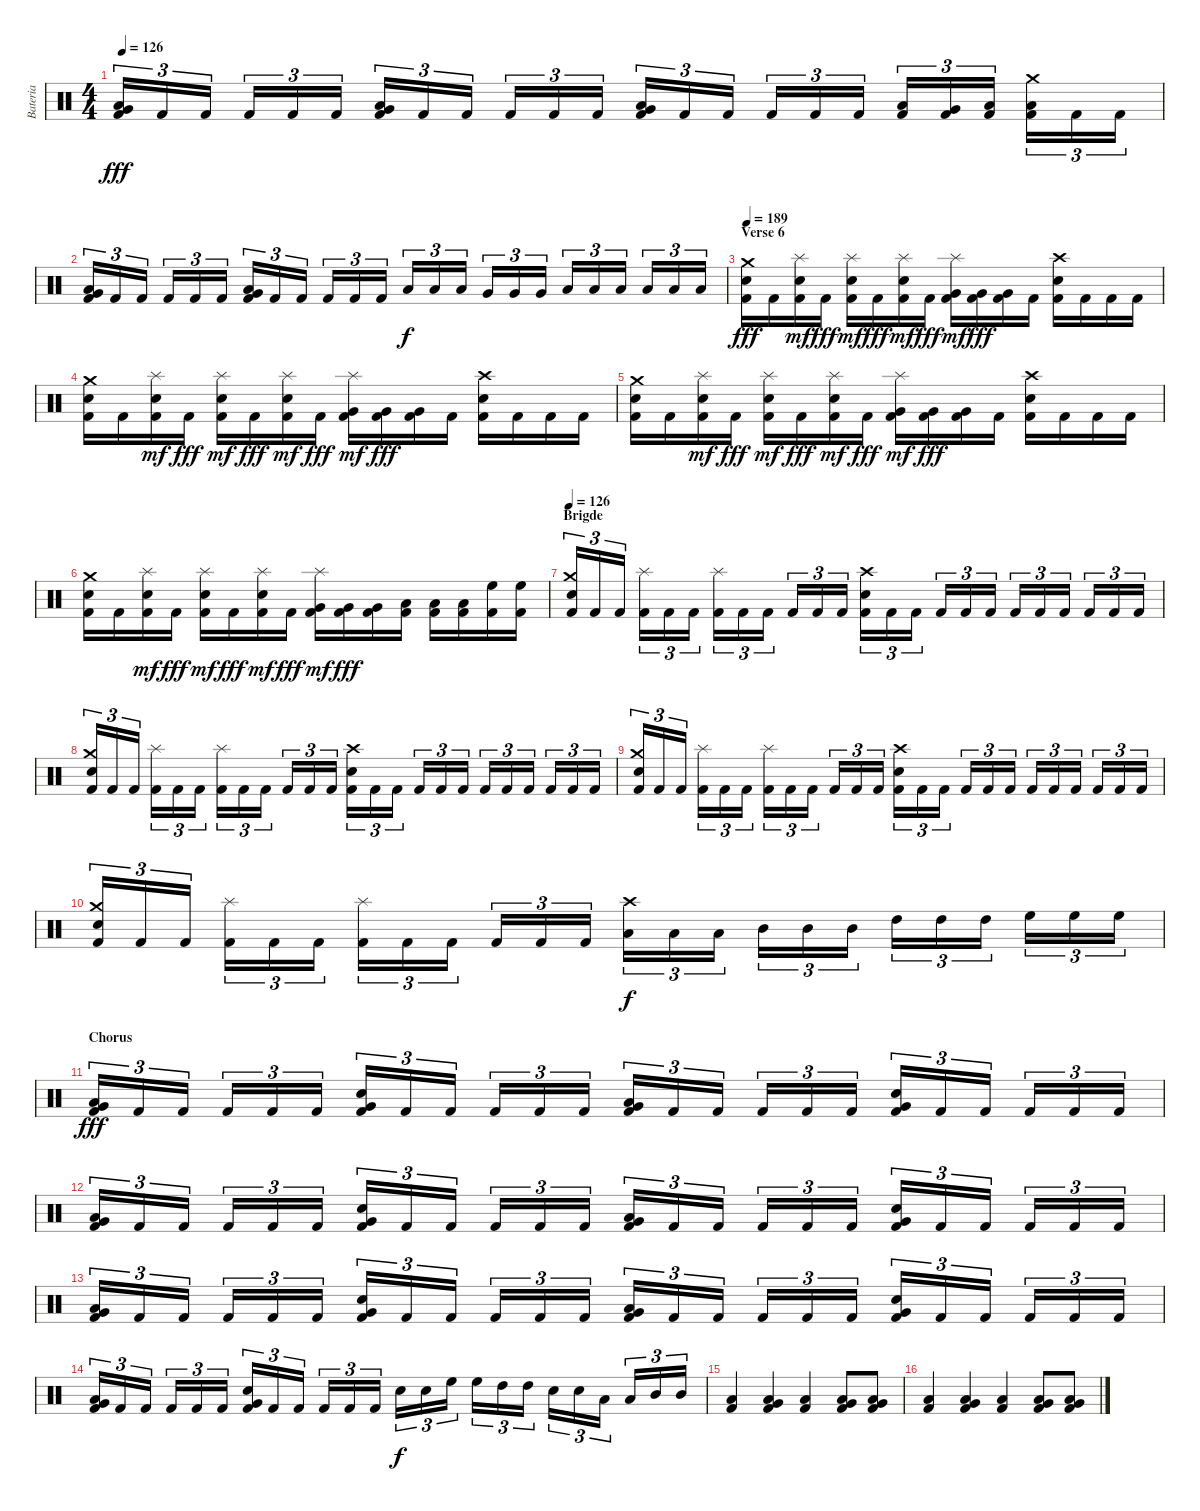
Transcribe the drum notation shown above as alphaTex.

\track ("Bateria" "Bateria") {instrument percussion}
\staff {score}
\articulation defaults
\ts (4 4)
\tempo 126
\clef neutral
\ks c
("Kick (hit) 2" "Low Floor Tom (hit)" "Very Low Tom (hit)").16{tu (3 2) dy fff} "Kick (hit) 2".16{tu (3 2)} "Kick (hit) 2".16{tu (3 2)} "Kick (hit) 2".16{tu (3 2)} "Kick (hit) 2".16{tu (3 2)} "Kick (hit) 2".16{tu (3 2)} ("Kick (hit) 2" "Low Floor Tom (hit)" "Very Low Tom (hit)").16{tu (3 2)} "Kick (hit) 2".16{tu (3 2)} "Kick (hit) 2".16{tu (3 2)} "Kick (hit) 2".16{tu (3 2)} "Kick (hit) 2".16{tu (3 2)} "Kick (hit) 2".16{tu (3 2)} ("Kick (hit) 2" "Low Floor Tom (hit)" "Very Low Tom (hit)").16{tu (3 2)} "Kick (hit) 2".16{tu (3 2)} "Kick (hit) 2".16{tu (3 2)} "Kick (hit) 2".16{tu (3 2)} "Kick (hit) 2".16{tu (3 2)} "Kick (hit) 2".16{tu (3 2)} ("Kick (hit) 2" "Low Floor Tom (hit)").16{tu (3 2)} ("Kick (hit) 2" "Very Low Tom (hit)").16{tu (3 2)} ("Kick (hit) 2" "Low Floor Tom (hit)").16{tu (3 2)} ("Kick (hit) 2" "Low Floor Tom (hit)" "Crash medium (hit)").16{tu (3 2)} "Kick (hit) 2".16{tu (3 2)} "Kick (hit) 2".16{tu (3 2)} |
("Kick (hit) 2" "Low Floor Tom (hit)" "Very Low Tom (hit)").16{tu (3 2)} "Kick (hit) 2".16{tu (3 2)} "Kick (hit) 2".16{tu (3 2)} "Kick (hit) 2".16{tu (3 2)} "Kick (hit) 2".16{tu (3 2)} "Kick (hit) 2".16{tu (3 2)} ("Kick (hit) 2" "Low Floor Tom (hit)" "Very Low Tom (hit)").16{tu (3 2)} "Kick (hit) 2".16{tu (3 2)} "Kick (hit) 2".16{tu (3 2)} "Kick (hit) 2".16{tu (3 2)} "Kick (hit) 2".16{tu (3 2)} "Kick (hit) 2".16{tu (3 2)} "Low Tom (hit)".16{tu (3 2) dy f} "Low Tom (hit)".16{tu (3 2)} "Low Tom (hit)".16{tu (3 2)} "Very Low Tom (hit)".16{tu (3 2)} "Very Low Tom (hit)".16{tu (3 2)} "Very Low Tom (hit)".16{tu (3 2)} "Low Tom (hit)".16{tu (3 2)} "Low Tom (hit)".16{tu (3 2)} "Low Tom (hit)".16{tu (3 2)} "Low Floor Tom (hit)".16{tu (3 2)} "Low Floor Tom (hit)".16{tu (3 2)} "Low Floor Tom (hit)".16{tu (3 2)} |
\section ("" "Verse 6")
\tempo 189
("Kick (hit) 2" "Electric Snare (hit)" "Crash medium (hit)").16{dy fff} "Kick (hit) 2".16 ("Kick (hit) 2" "Electric Snare (hit)" "Splash (hit)").16{dy mf} "Kick (hit) 2".16{dy fff} ("Kick (hit) 2" "Electric Snare (hit)" "Splash (hit)").16{dy mf} "Kick (hit) 2".16{dy fff} ("Kick (hit) 2" "Electric Snare (hit)" "Splash (hit)").16{dy mf} "Kick (hit) 2".16{dy fff} ("Kick (hit) 2" "Very Low Tom (hit)" "Splash (hit)").16{dy mf} ("Kick (hit) 2" "Very Low Tom (hit)").16{dy fff} ("Kick (hit) 2" "Very Low Tom (hit)").16 "Kick (hit) 2".16 ("Kick (hit) 2" "Electric Snare (hit)" "Crash high (hit)").16 "Kick (hit) 2".16 "Kick (hit) 2".16 "Kick (hit) 2".16 |
("Kick (hit) 2" "Electric Snare (hit)" "Crash medium (hit)").16 "Kick (hit) 2".16 ("Kick (hit) 2" "Electric Snare (hit)" "Splash (hit)").16{dy mf} "Kick (hit) 2".16{dy fff} ("Kick (hit) 2" "Electric Snare (hit)" "Splash (hit)").16{dy mf} "Kick (hit) 2".16{dy fff} ("Kick (hit) 2" "Electric Snare (hit)" "Splash (hit)").16{dy mf} "Kick (hit) 2".16{dy fff} ("Kick (hit) 2" "Very Low Tom (hit)" "Splash (hit)").16{dy mf} ("Kick (hit) 2" "Very Low Tom (hit)").16{dy fff} ("Kick (hit) 2" "Very Low Tom (hit)").16 "Kick (hit) 2".16 ("Kick (hit) 2" "Electric Snare (hit)" "Crash high (hit)").16 "Kick (hit) 2".16 "Kick (hit) 2".16 "Kick (hit) 2".16 |
("Kick (hit) 2" "Electric Snare (hit)" "Crash medium (hit)").16 "Kick (hit) 2".16 ("Kick (hit) 2" "Electric Snare (hit)" "Splash (hit)").16{dy mf} "Kick (hit) 2".16{dy fff} ("Kick (hit) 2" "Electric Snare (hit)" "Splash (hit)").16{dy mf} "Kick (hit) 2".16{dy fff} ("Kick (hit) 2" "Electric Snare (hit)" "Splash (hit)").16{dy mf} "Kick (hit) 2".16{dy fff} ("Kick (hit) 2" "Very Low Tom (hit)" "Splash (hit)").16{dy mf} ("Kick (hit) 2" "Very Low Tom (hit)").16{dy fff} ("Kick (hit) 2" "Very Low Tom (hit)").16 "Kick (hit) 2".16 ("Kick (hit) 2" "Electric Snare (hit)" "Crash high (hit)").16 "Kick (hit) 2".16 "Kick (hit) 2".16 "Kick (hit) 2".16 |
("Kick (hit) 2" "Electric Snare (hit)" "Crash medium (hit)").16 "Kick (hit) 2".16 ("Kick (hit) 2" "Electric Snare (hit)" "Splash (hit)").16{dy mf} "Kick (hit) 2".16{dy fff} ("Kick (hit) 2" "Electric Snare (hit)" "Splash (hit)").16{dy mf} "Kick (hit) 2".16{dy fff} ("Kick (hit) 2" "Electric Snare (hit)" "Splash (hit)").16{dy mf} "Kick (hit) 2".16{dy fff} ("Kick (hit) 2" "Very Low Tom (hit)" "Splash (hit)").16{dy mf} ("Kick (hit) 2" "Very Low Tom (hit)").16{dy fff} ("Kick (hit) 2" "Very Low Tom (hit)").16 ("Kick (hit) 2" "Low Floor Tom (hit)").16 ("Kick (hit) 2" "Low Floor Tom (hit)").16 ("Kick (hit) 2" "Low Floor Tom (hit)").16 ("Kick (hit) 2" "High Floor Tom (hit)").16 ("Kick (hit) 2" "High Floor Tom (hit)").16 |
\section ("" "Brigde")
\tempo 126
("Kick (hit) 2" "Electric Snare (hit)" "Crash medium (hit)").16{tu (3 2)} "Kick (hit) 2".16{tu (3 2)} "Kick (hit) 2".16{tu (3 2)} ("Kick (hit) 2" "Splash (hit)").16{tu (3 2)} "Kick (hit) 2".16{tu (3 2)} "Kick (hit) 2".16{tu (3 2)} ("Kick (hit) 2" "Splash (hit)").16{tu (3 2)} "Kick (hit) 2".16{tu (3 2)} "Kick (hit) 2".16{tu (3 2)} "Kick (hit) 2".16{tu (3 2)} "Kick (hit) 2".16{tu (3 2)} "Kick (hit) 2".16{tu (3 2)} ("Kick (hit) 2" "Electric Snare (hit)" "Crash high (hit)").16{tu (3 2)} "Kick (hit) 2".16{tu (3 2)} "Kick (hit) 2".16{tu (3 2)} "Kick (hit) 2".16{tu (3 2)} "Kick (hit) 2".16{tu (3 2)} "Kick (hit) 2".16{tu (3 2)} "Kick (hit) 2".16{tu (3 2)} "Kick (hit) 2".16{tu (3 2)} "Kick (hit) 2".16{tu (3 2)} "Kick (hit) 2".16{tu (3 2)} "Kick (hit) 2".16{tu (3 2)} "Kick (hit) 2".16{tu (3 2)} |
("Kick (hit) 2" "Electric Snare (hit)" "Crash medium (hit)").16{tu (3 2)} "Kick (hit) 2".16{tu (3 2)} "Kick (hit) 2".16{tu (3 2)} ("Kick (hit) 2" "Splash (hit)").16{tu (3 2)} "Kick (hit) 2".16{tu (3 2)} "Kick (hit) 2".16{tu (3 2)} ("Kick (hit) 2" "Splash (hit)").16{tu (3 2)} "Kick (hit) 2".16{tu (3 2)} "Kick (hit) 2".16{tu (3 2)} "Kick (hit) 2".16{tu (3 2)} "Kick (hit) 2".16{tu (3 2)} "Kick (hit) 2".16{tu (3 2)} ("Kick (hit) 2" "Electric Snare (hit)" "Crash high (hit)").16{tu (3 2)} "Kick (hit) 2".16{tu (3 2)} "Kick (hit) 2".16{tu (3 2)} "Kick (hit) 2".16{tu (3 2)} "Kick (hit) 2".16{tu (3 2)} "Kick (hit) 2".16{tu (3 2)} "Kick (hit) 2".16{tu (3 2)} "Kick (hit) 2".16{tu (3 2)} "Kick (hit) 2".16{tu (3 2)} "Kick (hit) 2".16{tu (3 2)} "Kick (hit) 2".16{tu (3 2)} "Kick (hit) 2".16{tu (3 2)} |
("Kick (hit) 2" "Electric Snare (hit)" "Crash medium (hit)").16{tu (3 2)} "Kick (hit) 2".16{tu (3 2)} "Kick (hit) 2".16{tu (3 2)} ("Kick (hit) 2" "Splash (hit)").16{tu (3 2)} "Kick (hit) 2".16{tu (3 2)} "Kick (hit) 2".16{tu (3 2)} ("Kick (hit) 2" "Splash (hit)").16{tu (3 2)} "Kick (hit) 2".16{tu (3 2)} "Kick (hit) 2".16{tu (3 2)} "Kick (hit) 2".16{tu (3 2)} "Kick (hit) 2".16{tu (3 2)} "Kick (hit) 2".16{tu (3 2)} ("Kick (hit) 2" "Electric Snare (hit)" "Crash high (hit)").16{tu (3 2)} "Kick (hit) 2".16{tu (3 2)} "Kick (hit) 2".16{tu (3 2)} "Kick (hit) 2".16{tu (3 2)} "Kick (hit) 2".16{tu (3 2)} "Kick (hit) 2".16{tu (3 2)} "Kick (hit) 2".16{tu (3 2)} "Kick (hit) 2".16{tu (3 2)} "Kick (hit) 2".16{tu (3 2)} "Kick (hit) 2".16{tu (3 2)} "Kick (hit) 2".16{tu (3 2)} "Kick (hit) 2".16{tu (3 2)} |
("Kick (hit) 2" "Electric Snare (hit)" "Crash medium (hit)").16{tu (3 2)} "Kick (hit) 2".16{tu (3 2)} "Kick (hit) 2".16{tu (3 2)} ("Kick (hit) 2" "Splash (hit)").16{tu (3 2)} "Kick (hit) 2".16{tu (3 2)} "Kick (hit) 2".16{tu (3 2)} ("Kick (hit) 2" "Splash (hit)").16{tu (3 2)} "Kick (hit) 2".16{tu (3 2)} "Kick (hit) 2".16{tu (3 2)} "Kick (hit) 2".16{tu (3 2)} "Kick (hit) 2".16{tu (3 2)} "Kick (hit) 2".16{tu (3 2)} ("Low Tom (hit)" "Crash high (hit)").16{tu (3 2) dy f} "Low Tom (hit)".16{tu (3 2)} "Low Tom (hit)".16{tu (3 2)} "Mid Tom (hit)".16{tu (3 2)} "Mid Tom (hit)".16{tu (3 2)} "Mid Tom (hit)".16{tu (3 2)} "High Tom (hit)".16{tu (3 2)} "High Tom (hit)".16{tu (3 2)} "High Tom (hit)".16{tu (3 2)} "High Floor Tom (hit)".16{tu (3 2)} "High Floor Tom (hit)".16{tu (3 2)} "High Floor Tom (hit)".16{tu (3 2)} |
\section ("" "Chorus")
("Kick (hit) 2" "Low Floor Tom (hit)" "Very Low Tom (hit)").16{tu (3 2) dy fff} "Kick (hit) 2".16{tu (3 2)} "Kick (hit) 2".16{tu (3 2)} "Kick (hit) 2".16{tu (3 2)} "Kick (hit) 2".16{tu (3 2)} "Kick (hit) 2".16{tu (3 2)} ("Kick (hit) 2" "Electric Snare (hit)" "Very Low Tom (hit)").16{tu (3 2)} "Kick (hit) 2".16{tu (3 2)} "Kick (hit) 2".16{tu (3 2)} "Kick (hit) 2".16{tu (3 2)} "Kick (hit) 2".16{tu (3 2)} "Kick (hit) 2".16{tu (3 2)} ("Kick (hit) 2" "Low Floor Tom (hit)" "Very Low Tom (hit)").16{tu (3 2)} "Kick (hit) 2".16{tu (3 2)} "Kick (hit) 2".16{tu (3 2)} "Kick (hit) 2".16{tu (3 2)} "Kick (hit) 2".16{tu (3 2)} "Kick (hit) 2".16{tu (3 2)} ("Kick (hit) 2" "Electric Snare (hit)" "Very Low Tom (hit)").16{tu (3 2)} "Kick (hit) 2".16{tu (3 2)} "Kick (hit) 2".16{tu (3 2)} "Kick (hit) 2".16{tu (3 2)} "Kick (hit) 2".16{tu (3 2)} "Kick (hit) 2".16{tu (3 2)} |
("Kick (hit) 2" "Low Floor Tom (hit)" "Very Low Tom (hit)").16{tu (3 2)} "Kick (hit) 2".16{tu (3 2)} "Kick (hit) 2".16{tu (3 2)} "Kick (hit) 2".16{tu (3 2)} "Kick (hit) 2".16{tu (3 2)} "Kick (hit) 2".16{tu (3 2)} ("Kick (hit) 2" "Electric Snare (hit)" "Very Low Tom (hit)").16{tu (3 2)} "Kick (hit) 2".16{tu (3 2)} "Kick (hit) 2".16{tu (3 2)} "Kick (hit) 2".16{tu (3 2)} "Kick (hit) 2".16{tu (3 2)} "Kick (hit) 2".16{tu (3 2)} ("Kick (hit) 2" "Low Floor Tom (hit)" "Very Low Tom (hit)").16{tu (3 2)} "Kick (hit) 2".16{tu (3 2)} "Kick (hit) 2".16{tu (3 2)} "Kick (hit) 2".16{tu (3 2)} "Kick (hit) 2".16{tu (3 2)} "Kick (hit) 2".16{tu (3 2)} ("Kick (hit) 2" "Electric Snare (hit)" "Very Low Tom (hit)").16{tu (3 2)} "Kick (hit) 2".16{tu (3 2)} "Kick (hit) 2".16{tu (3 2)} "Kick (hit) 2".16{tu (3 2)} "Kick (hit) 2".16{tu (3 2)} "Kick (hit) 2".16{tu (3 2)} |
("Kick (hit) 2" "Low Floor Tom (hit)" "Very Low Tom (hit)").16{tu (3 2)} "Kick (hit) 2".16{tu (3 2)} "Kick (hit) 2".16{tu (3 2)} "Kick (hit) 2".16{tu (3 2)} "Kick (hit) 2".16{tu (3 2)} "Kick (hit) 2".16{tu (3 2)} ("Kick (hit) 2" "Electric Snare (hit)" "Very Low Tom (hit)").16{tu (3 2)} "Kick (hit) 2".16{tu (3 2)} "Kick (hit) 2".16{tu (3 2)} "Kick (hit) 2".16{tu (3 2)} "Kick (hit) 2".16{tu (3 2)} "Kick (hit) 2".16{tu (3 2)} ("Kick (hit) 2" "Low Floor Tom (hit)" "Very Low Tom (hit)").16{tu (3 2)} "Kick (hit) 2".16{tu (3 2)} "Kick (hit) 2".16{tu (3 2)} "Kick (hit) 2".16{tu (3 2)} "Kick (hit) 2".16{tu (3 2)} "Kick (hit) 2".16{tu (3 2)} ("Kick (hit) 2" "Electric Snare (hit)" "Very Low Tom (hit)").16{tu (3 2)} "Kick (hit) 2".16{tu (3 2)} "Kick (hit) 2".16{tu (3 2)} "Kick (hit) 2".16{tu (3 2)} "Kick (hit) 2".16{tu (3 2)} "Kick (hit) 2".16{tu (3 2)} |
("Kick (hit) 2" "Low Floor Tom (hit)" "Very Low Tom (hit)").16{tu (3 2)} "Kick (hit) 2".16{tu (3 2)} "Kick (hit) 2".16{tu (3 2)} "Kick (hit) 2".16{tu (3 2)} "Kick (hit) 2".16{tu (3 2)} "Kick (hit) 2".16{tu (3 2)} ("Kick (hit) 2" "Electric Snare (hit)" "Very Low Tom (hit)").16{tu (3 2)} "Kick (hit) 2".16{tu (3 2)} "Kick (hit) 2".16{tu (3 2)} "Kick (hit) 2".16{tu (3 2)} "Kick (hit) 2".16{tu (3 2)} "Kick (hit) 2".16{tu (3 2)} "Electric Snare (hit)".16{tu (3 2) dy f} "Electric Snare (hit)".16{tu (3 2)} "High Floor Tom (hit)".16{tu (3 2)} "High Floor Tom (hit)".16{tu (3 2)} "High Tom (hit)".16{tu (3 2)} "High Tom (hit)".16{tu (3 2)} "Electric Snare (hit)".16{tu (3 2)} "Electric Snare (hit)".16{tu (3 2)} "Low Tom (hit)".16{tu (3 2)} "Low Tom (hit)".16{tu (3 2)} "Mid Tom (hit)".16{tu (3 2)} "Mid Tom (hit)".16{tu (3 2)} |
("Kick (hit) 2" "Low Floor Tom (hit)").4 ("Kick (hit) 2" "Low Floor Tom (hit)" "Very Low Tom (hit)").4 ("Kick (hit) 2" "Low Floor Tom (hit)").4 ("Kick (hit) 2" "Low Floor Tom (hit)" "Very Low Tom (hit)").8 ("Kick (hit) 2" "Low Floor Tom (hit)" "Very Low Tom (hit)").8 |
("Kick (hit) 2" "Low Floor Tom (hit)").4 ("Kick (hit) 2" "Low Floor Tom (hit)" "Very Low Tom (hit)").4 ("Kick (hit) 2" "Low Floor Tom (hit)").4 ("Kick (hit) 2" "Low Floor Tom (hit)" "Very Low Tom (hit)").8 ("Kick (hit) 2" "Low Floor Tom (hit)" "Very Low Tom (hit)").8
